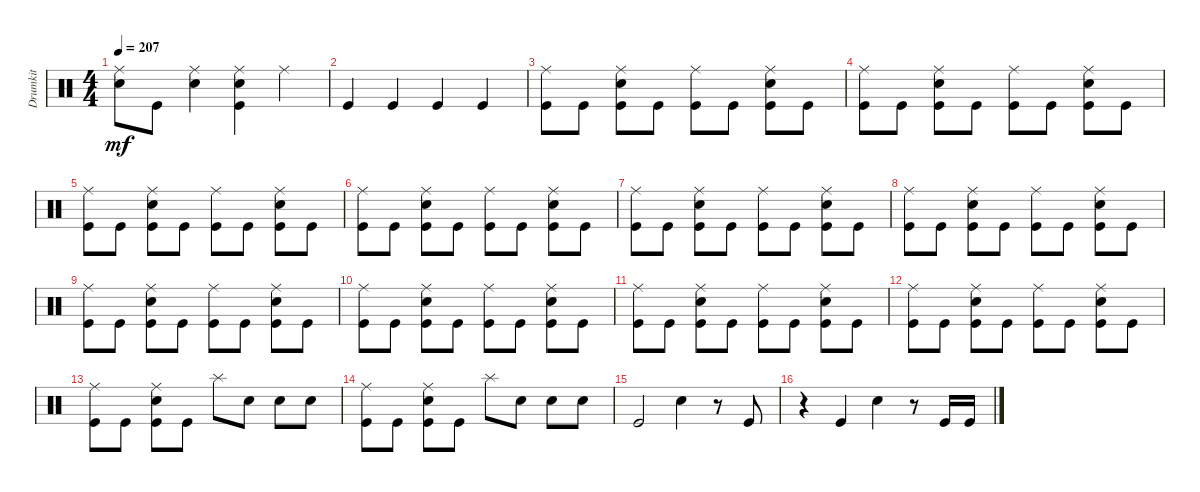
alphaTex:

\track ("Drumkit" "Drumkit") {instrument percussion}
\staff {score}
\articulation defaults
\ts (4 4)
\tempo 207
\clef neutral
\ks c
("Ride (middle)" "Snare (hit) 2").8{dy mf} "Kick (hit)".8 ("Ride (middle)" "Snare (hit) 2").4 ("Ride (middle)" "Kick (hit)" "Snare (hit) 2").4 "Ride (middle)".4 |
"Kick (hit)".4 "Kick (hit)".4 "Kick (hit)".4 "Kick (hit)".4 |
("Kick (hit)" "Ride (middle)").8 "Kick (hit)".8 ("Snare (hit) 2" "Ride (middle)" "Kick (hit)").8 "Kick (hit)".8 ("Kick (hit)" "Ride (middle)").8 "Kick (hit)".8 ("Snare (hit) 2" "Ride (middle)" "Kick (hit)").8 "Kick (hit)".8 |
("Kick (hit)" "Ride (middle)").8 "Kick (hit)".8 ("Snare (hit) 2" "Ride (middle)" "Kick (hit)").8 "Kick (hit)".8 ("Kick (hit)" "Ride (middle)").8 "Kick (hit)".8 ("Snare (hit) 2" "Ride (middle)" "Kick (hit)").8 "Kick (hit)".8 |
("Kick (hit)" "Ride (middle)").8 "Kick (hit)".8 ("Snare (hit) 2" "Ride (middle)" "Kick (hit)").8 "Kick (hit)".8 ("Kick (hit)" "Ride (middle)").8 "Kick (hit)".8 ("Snare (hit) 2" "Ride (middle)" "Kick (hit)").8 "Kick (hit)".8 |
("Kick (hit)" "Ride (middle)").8 "Kick (hit)".8 ("Snare (hit) 2" "Ride (middle)" "Kick (hit)").8 "Kick (hit)".8 ("Kick (hit)" "Ride (middle)").8 "Kick (hit)".8 ("Snare (hit) 2" "Ride (middle)" "Kick (hit)").8 "Kick (hit)".8 |
("Kick (hit)" "Ride (middle)").8 "Kick (hit)".8 ("Snare (hit) 2" "Ride (middle)" "Kick (hit)").8 "Kick (hit)".8 ("Kick (hit)" "Ride (middle)").8 "Kick (hit)".8 ("Snare (hit) 2" "Ride (middle)" "Kick (hit)").8 "Kick (hit)".8 |
("Kick (hit)" "Ride (middle)").8 "Kick (hit)".8 ("Snare (hit) 2" "Ride (middle)" "Kick (hit)").8 "Kick (hit)".8 ("Kick (hit)" "Ride (middle)").8 "Kick (hit)".8 ("Snare (hit) 2" "Ride (middle)" "Kick (hit)").8 "Kick (hit)".8 |
("Kick (hit)" "Ride (middle)").8 "Kick (hit)".8 ("Snare (hit) 2" "Ride (middle)" "Kick (hit)").8 "Kick (hit)".8 ("Kick (hit)" "Ride (middle)").8 "Kick (hit)".8 ("Snare (hit) 2" "Ride (middle)" "Kick (hit)").8 "Kick (hit)".8 |
("Kick (hit)" "Ride (middle)").8 "Kick (hit)".8 ("Snare (hit) 2" "Ride (middle)" "Kick (hit)").8 "Kick (hit)".8 ("Kick (hit)" "Ride (middle)").8 "Kick (hit)".8 ("Snare (hit) 2" "Ride (middle)" "Kick (hit)").8 "Kick (hit)".8 |
("Kick (hit)" "Ride (middle)").8 "Kick (hit)".8 ("Snare (hit) 2" "Ride (middle)" "Kick (hit)").8 "Kick (hit)".8 ("Kick (hit)" "Ride (middle)").8 "Kick (hit)".8 ("Snare (hit) 2" "Ride (middle)" "Kick (hit)").8 "Kick (hit)".8 |
("Kick (hit)" "Ride (middle)").8 "Kick (hit)".8 ("Snare (hit) 2" "Ride (middle)" "Kick (hit)").8 "Kick (hit)".8 ("Kick (hit)" "Ride (middle)").8 "Kick (hit)".8 ("Snare (hit) 2" "Ride (middle)" "Kick (hit)").8 "Kick (hit)".8 |
("Kick (hit)" "Ride (middle)").8 "Kick (hit)".8 ("Snare (hit) 2" "Ride (middle)" "Kick (hit)").8 "Kick (hit)".8 "Splash (hit)".8 "Snare (hit) 2".8 "Snare (hit) 2".8 "Snare (hit) 2".8 |
("Kick (hit)" "Ride (middle)").8 "Kick (hit)".8 ("Snare (hit) 2" "Ride (middle)" "Kick (hit)").8 "Kick (hit)".8 "Splash (hit)".8 "Snare (hit) 2".8 "Snare (hit) 2".8 "Snare (hit) 2".8 |
"Kick (hit)".2 "Snare (hit) 2".4 r.8 "Kick (hit)".8 |
r.4 "Kick (hit)".4 "Snare (hit) 2".4 r.8 "Kick (hit)".16 "Kick (hit)".16
